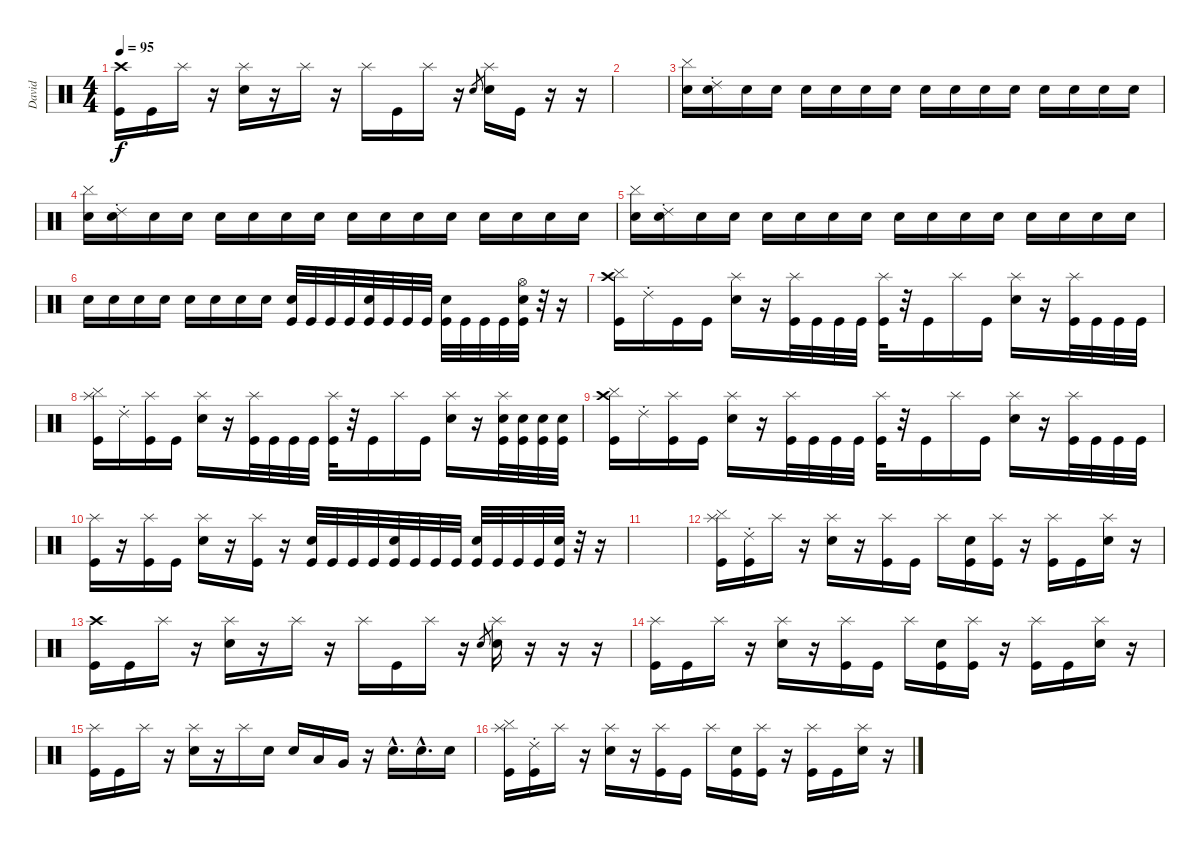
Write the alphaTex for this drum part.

\track ("David" "David") {instrument percussion}
\staff {score}
\articulation defaults
\ts (4 4)
\tempo 95
\clef neutral
\ks c
("Crash high (hit)" "Kick (hit)").16{dy f} "Kick (hit)".16 "Splash (hit)".16 r.16 ("Splash (hit)" "Electric Snare (hit)").16 r.16 "Splash (hit)".16 r.16 "Splash (hit)".16 "Kick (hit)".16 "Splash (hit)".16 r.16 "Electric Snare (hit)".8{gr} ("Splash (hit)" "Electric Snare (hit)").16 "Kick (hit)".16 r.16 r.16 |
|
("Electric Snare (hit)" "Cymbal (hit)").16{volume 16} ("Electric Snare (hit)" "Ride (choke) 2").16 "Electric Snare (hit)".16 "Electric Snare (hit)".16 "Electric Snare (hit)".16 "Electric Snare (hit)".16 "Electric Snare (hit)".16 "Electric Snare (hit)".16 "Electric Snare (hit)".16 "Electric Snare (hit)".16 "Electric Snare (hit)".16 "Electric Snare (hit)".16 "Electric Snare (hit)".16 "Electric Snare (hit)".16 "Electric Snare (hit)".16 "Electric Snare (hit)".16 |
("Electric Snare (hit)" "Cymbal (hit)").16 ("Electric Snare (hit)" "Ride (choke) 2").16 "Electric Snare (hit)".16 "Electric Snare (hit)".16 "Electric Snare (hit)".16 "Electric Snare (hit)".16 "Electric Snare (hit)".16 "Electric Snare (hit)".16 "Electric Snare (hit)".16 "Electric Snare (hit)".16 "Electric Snare (hit)".16 "Electric Snare (hit)".16 "Electric Snare (hit)".16 "Electric Snare (hit)".16 "Electric Snare (hit)".16 "Electric Snare (hit)".16 |
("Electric Snare (hit)" "Cymbal (hit)").16 ("Electric Snare (hit)" "Ride (choke) 2").16 "Electric Snare (hit)".16 "Electric Snare (hit)".16 "Electric Snare (hit)".16 "Electric Snare (hit)".16 "Electric Snare (hit)".16 "Electric Snare (hit)".16 "Electric Snare (hit)".16 "Electric Snare (hit)".16 "Electric Snare (hit)".16 "Electric Snare (hit)".16 "Electric Snare (hit)".16 "Electric Snare (hit)".16 "Electric Snare (hit)".16 "Electric Snare (hit)".16 |
"Electric Snare (hit)".16 "Electric Snare (hit)".16 "Electric Snare (hit)".16 "Electric Snare (hit)".16 "Electric Snare (hit)".16 "Electric Snare (hit)".16 "Electric Snare (hit)".16 "Electric Snare (hit)".16 ("Electric Snare (hit)" "Kick (hit)").32 "Kick (hit)".32 "Kick (hit)".32 "Kick (hit)".32 ("Electric Snare (hit)" "Kick (hit)").32 "Kick (hit)".32 "Kick (hit)".32 "Kick (hit)".32 ("Electric Snare (hit)" "Kick (hit)").32 "Kick (hit)".32 "Kick (hit)".32 "Kick (hit)".32 ("Hi-Hat (open)" "Electric Snare (hit)" "Kick (hit)").32 r.32 r.16 |
("Crash high (hit)" "Cymbal (hit)" "Kick (hit)").16 "Ride (choke) 2".16 "Kick (hit)".16 "Kick (hit)".16 ("Splash (hit)" "Electric Snare (hit)").16 r.16 ("Splash (hit)" "Kick (hit)").32 "Kick (hit)".32 "Kick (hit)".32 "Kick (hit)".32 ("Splash (hit)" "Kick (hit)").32 r.32 "Kick (hit)".16 "Splash (hit)".16 "Kick (hit)".16 ("Splash (hit)" "Electric Snare (hit)").16 r.16 ("Splash (hit)" "Kick (hit)").32 "Kick (hit)".32 "Kick (hit)".32 "Kick (hit)".32 |
("Splash (hit)" "Cymbal (hit)" "Kick (hit)").16 "Ride (choke) 2".16 ("Splash (hit)" "Kick (hit)").16 "Kick (hit)".16 ("Splash (hit)" "Electric Snare (hit)").16 r.16 ("Splash (hit)" "Kick (hit)").32 "Kick (hit)".32 "Kick (hit)".32 "Kick (hit)".32 ("Splash (hit)" "Kick (hit)").32 r.32 "Kick (hit)".16 "Splash (hit)".16 "Kick (hit)".16 ("Splash (hit)" "Electric Snare (hit)").16 r.16 ("Splash (hit)" "Electric Snare (hit)" "Kick (hit)").32 ("Electric Snare (hit)" "Kick (hit)").32 ("Electric Snare (hit)" "Kick (hit)").32 ("Electric Snare (hit)" "Kick (hit)").32 |
("Crash high (hit)" "Cymbal (hit)" "Kick (hit)").16 "Ride (choke) 2".16 ("Splash (hit)" "Kick (hit)").16 "Kick (hit)".16 ("Splash (hit)" "Electric Snare (hit)").16 r.16 ("Splash (hit)" "Kick (hit)").32 "Kick (hit)".32 "Kick (hit)".32 "Kick (hit)".32 ("Splash (hit)" "Kick (hit)").32 r.32 "Kick (hit)".16 "Splash (hit)".16 "Kick (hit)".16 ("Splash (hit)" "Electric Snare (hit)").16 r.16 ("Splash (hit)" "Kick (hit)").32 "Kick (hit)".32 "Kick (hit)".32 "Kick (hit)".32 |
("Splash (hit)" "Kick (hit)").16 r.16 ("Splash (hit)" "Kick (hit)").16 "Kick (hit)".16 ("Splash (hit)" "Electric Snare (hit)").16 r.16 ("Splash (hit)" "Kick (hit)").16 r.16 ("Electric Snare (hit)" "Kick (hit)").32 "Kick (hit)".32 "Kick (hit)".32 "Kick (hit)".32 ("Electric Snare (hit)" "Kick (hit)").32 "Kick (hit)".32 "Kick (hit)".32 "Kick (hit)".32 ("Electric Snare (hit)" "Kick (hit)").32 "Kick (hit)".32 "Kick (hit)".32 "Kick (hit)".32 ("Electric Snare (hit)" "Kick (hit)").32 r.32 r.16 |
|
("Splash (hit)" "Cymbal (hit)" "Kick (hit)").16 ("Ride (choke) 2" "Kick (hit)").16 "Splash (hit)".16 r.16 ("Splash (hit)" "Electric Snare (hit)").16 r.16 ("Splash (hit)" "Kick (hit)").16 "Kick (hit)".16 "Splash (hit)".16 ("Electric Snare (hit)" "Kick (hit)").16 ("Splash (hit)" "Kick (hit)").16 r.16 ("Splash (hit)" "Kick (hit)").16 "Kick (hit)".16 ("Splash (hit)" "Electric Snare (hit)").16 r.16 |
("Crash high (hit)" "Kick (hit)").16 "Kick (hit)".16 "Splash (hit)".16 r.16 ("Splash (hit)" "Electric Snare (hit)").16 r.16 "Splash (hit)".16 r.16 "Splash (hit)".16 "Kick (hit)".16 "Splash (hit)".16 r.16 "Electric Snare (hit)".8{gr} ("Splash (hit)" "Electric Snare (hit)").16 r.16 r.16 r.16 |
("Splash (hit)" "Kick (hit)").16 "Kick (hit)".16 "Splash (hit)".16 r.16 ("Splash (hit)" "Electric Snare (hit)").16 r.16 ("Splash (hit)" "Kick (hit)").16 "Kick (hit)".16 "Splash (hit)".16 ("Electric Snare (hit)" "Kick (hit)").16 ("Splash (hit)" "Kick (hit)").16 r.16 ("Splash (hit)" "Kick (hit)").16 "Kick (hit)".16 ("Splash (hit)" "Electric Snare (hit)").16 r.16 |
("Splash (hit)" "Kick (hit)").16 "Kick (hit)".16 "Splash (hit)".16 r.16 ("Splash (hit)" "Electric Snare (hit)").16 r.16 "Splash (hit)".16 "Electric Snare (hit)".16 "Electric Snare (hit)".16 "Low Tom (hit)".16 "Very Low Tom (hit)".16 r.16 "Electric Snare (hit)"{hac}.16{d} "Electric Snare (hit)"{hac}.16{d} "Electric Snare (hit)".16 |
("Splash (hit)" "Cymbal (hit)" "Kick (hit)").16 ("Ride (choke) 2" "Kick (hit)").16 "Splash (hit)".16 r.16 ("Splash (hit)" "Electric Snare (hit)").16 r.16 ("Splash (hit)" "Kick (hit)").16 "Kick (hit)".16 "Splash (hit)".16 ("Electric Snare (hit)" "Kick (hit)").16 ("Splash (hit)" "Kick (hit)").16 r.16 ("Splash (hit)" "Kick (hit)").16 "Kick (hit)".16 ("Splash (hit)" "Electric Snare (hit)").16 r.16
